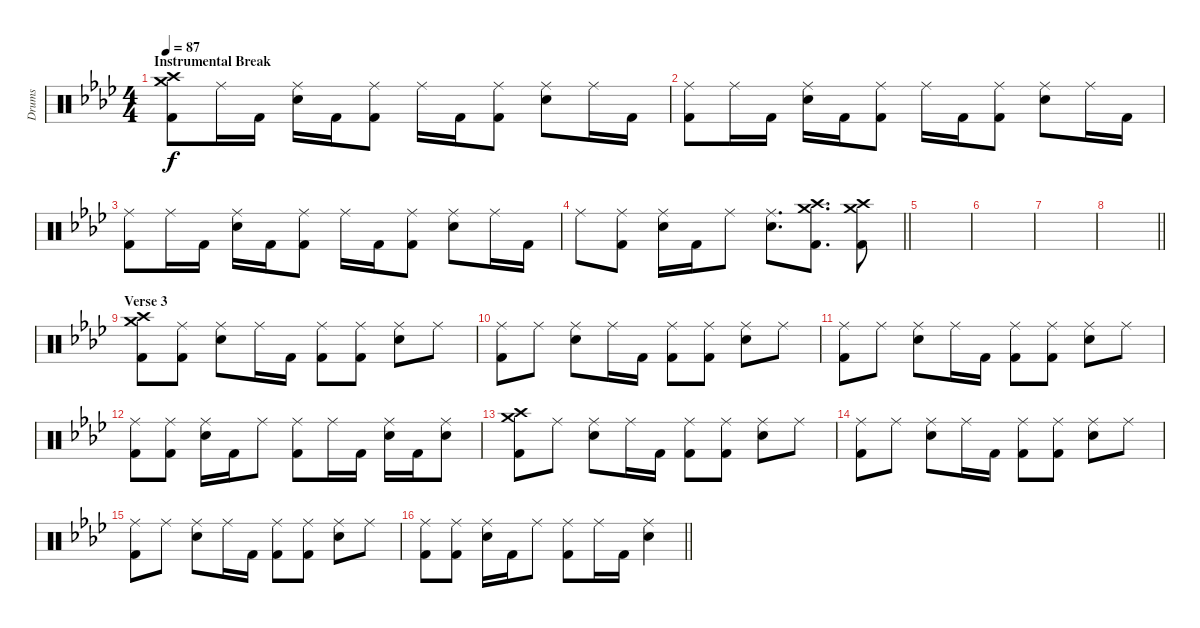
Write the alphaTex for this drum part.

\track ("Drums" "Drums") {instrument percussion}
\staff {score}
\articulation defaults
\ts (4 4)
\section ("" "Instrumental Break")
\tempo 87
\clef neutral
\ks fminor
("Crash medium (hit)" "Crash high (hit)" "Kick (hit) 2").8{dy f} "Ride (middle)".16 "Kick (hit) 2".16 ("Ride (middle)" "Electric Snare (hit)").16 "Kick (hit) 2".16 ("Ride (middle)" "Kick (hit) 2").8 "Ride (middle)".16 "Kick (hit) 2".16 ("Ride (middle)" "Kick (hit) 2").8 ("Ride (middle)" "Electric Snare (hit)").8 "Ride (middle)".16 "Kick (hit) 2".16 |
("Ride (middle)" "Kick (hit) 2").8 "Ride (middle)".16 "Kick (hit) 2".16 ("Ride (middle)" "Electric Snare (hit)").16 "Kick (hit) 2".16 ("Ride (middle)" "Kick (hit) 2").8 "Ride (middle)".16 "Kick (hit) 2".16 ("Ride (middle)" "Kick (hit) 2").8 ("Ride (middle)" "Electric Snare (hit)").8 "Ride (middle)".16 "Kick (hit) 2".16 |
("Ride (middle)" "Kick (hit) 2").8 "Ride (middle)".16 "Kick (hit) 2".16 ("Ride (middle)" "Electric Snare (hit)").16 "Kick (hit) 2".16 ("Ride (middle)" "Kick (hit) 2").8 "Ride (middle)".16 "Kick (hit) 2".16 ("Ride (middle)" "Kick (hit) 2").8 ("Ride (middle)" "Electric Snare (hit)").8 "Ride (middle)".16 "Kick (hit) 2".16 |
\barLineRight lightlight "Ride (middle)".8
("Ride (middle)" "Kick (hit) 2").8 ("Ride (middle)" "Electric Snare (hit)").16 "Kick (hit) 2".16 "Ride (middle)".8 ("Ride (middle)" "Electric Snare (hit)").8{d} ("Crash medium (hit)" "Crash high (hit)" "Kick (hit) 2").8{d} ("Crash medium (hit)" "Crash high (hit)" "Kick (hit) 2").8 |
\section ("" " ")
|
|
|
\barLineRight lightlight
|
\section ("" "Verse 3")
("Crash medium (hit)" "Crash high (hit)" "Kick (hit) 2").8 ("Ride (middle)" "Kick (hit) 2").8 ("Ride (middle)" "Electric Snare (hit)").8 "Ride (middle)".16 "Kick (hit) 2".16 ("Ride (middle)" "Kick (hit) 2").8 ("Ride (middle)" "Kick (hit) 2").8 ("Ride (middle)" "Electric Snare (hit)").8 "Ride (middle)".8 |
("Ride (middle)" "Kick (hit) 2").8 "Ride (middle)".8 ("Ride (middle)" "Electric Snare (hit)").8 "Ride (middle)".16 "Kick (hit) 2".16 ("Ride (middle)" "Kick (hit) 2").8 ("Ride (middle)" "Kick (hit) 2").8 ("Ride (middle)" "Electric Snare (hit)").8 "Ride (middle)".8 |
("Ride (middle)" "Kick (hit) 2").8 "Ride (middle)".8 ("Ride (middle)" "Electric Snare (hit)").8 "Ride (middle)".16 "Kick (hit) 2".16 ("Ride (middle)" "Kick (hit) 2").8 ("Ride (middle)" "Kick (hit) 2").8 ("Ride (middle)" "Electric Snare (hit)").8 "Ride (middle)".8 |
("Ride (middle)" "Kick (hit) 2").8 ("Ride (middle)" "Kick (hit) 2").8 ("Ride (middle)" "Electric Snare (hit)").16 "Kick (hit) 2".16 "Ride (middle)".8 ("Ride (middle)" "Kick (hit) 2").8 "Ride (middle)".16 "Kick (hit) 2".16 ("Ride (middle)" "Electric Snare (hit)").16 "Kick (hit) 2".16 ("Ride (middle)" "Electric Snare (hit)").8 |
("Crash medium (hit)" "Crash high (hit)" "Kick (hit) 2").8 "Ride (middle)".8 ("Ride (middle)" "Electric Snare (hit)").8 "Ride (middle)".16 "Kick (hit) 2".16 ("Ride (middle)" "Kick (hit) 2").8 ("Ride (middle)" "Kick (hit) 2").8 ("Ride (middle)" "Electric Snare (hit)").8 "Ride (middle)".8 |
("Ride (middle)" "Kick (hit) 2").8 "Ride (middle)".8 ("Ride (middle)" "Electric Snare (hit)").8 "Ride (middle)".16 "Kick (hit) 2".16 ("Ride (middle)" "Kick (hit) 2").8 ("Ride (middle)" "Kick (hit) 2").8 ("Ride (middle)" "Electric Snare (hit)").8 "Ride (middle)".8 |
("Ride (middle)" "Kick (hit) 2").8 "Ride (middle)".8 ("Ride (middle)" "Electric Snare (hit)").8 "Ride (middle)".16 "Kick (hit) 2".16 ("Ride (middle)" "Kick (hit) 2").8 ("Ride (middle)" "Kick (hit) 2").8 ("Ride (middle)" "Electric Snare (hit)").8 "Ride (middle)".8 |
\barLineRight lightlight
("Ride (middle)" "Kick (hit) 2").8 ("Ride (middle)" "Kick (hit) 2").8 ("Ride (middle)" "Electric Snare (hit)").16 "Kick (hit) 2".16 "Ride (middle)".8 ("Ride (middle)" "Kick (hit) 2").8 "Ride (middle)".16 "Kick (hit) 2".16 ("Ride (middle)" "Electric Snare (hit)").4
